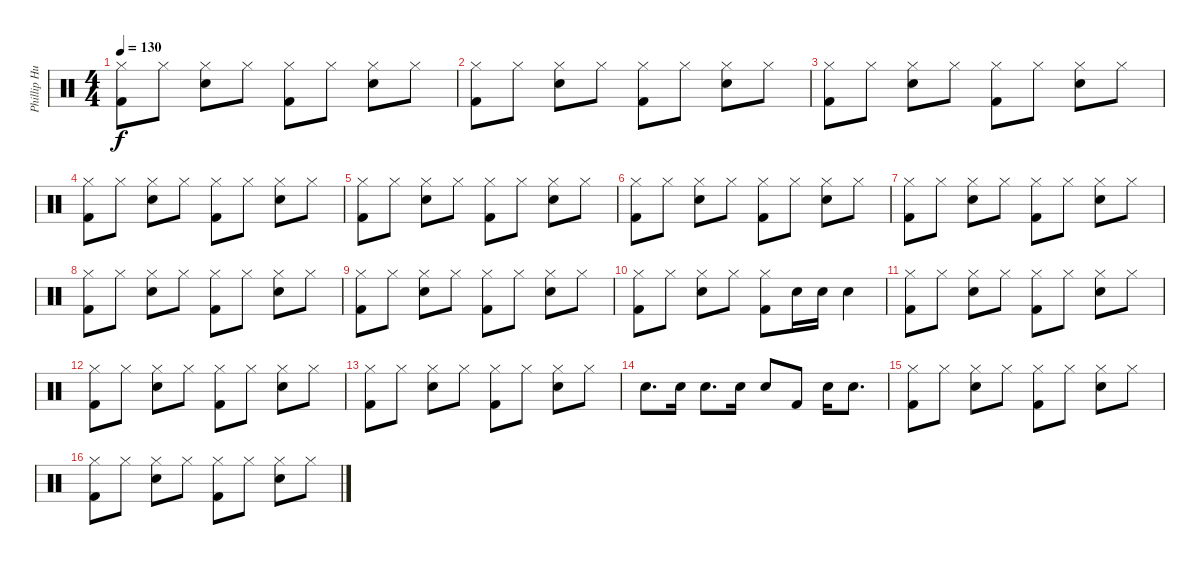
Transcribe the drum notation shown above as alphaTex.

\track ("Phillip Hungh" "Phillip Hu") {instrument percussion}
\staff {score}
\articulation defaults
\ts (4 4)
\tempo 130
\clef neutral
\ks c
("Hi-Hat (closed)" "Kick (hit) 2").8{dy f} "Hi-Hat (closed)".8 ("Hi-Hat (closed)" "Snare (hit) 2").8 "Hi-Hat (closed)".8 ("Hi-Hat (closed)" "Kick (hit) 2").8 "Hi-Hat (closed)".8 ("Hi-Hat (closed)" "Snare (hit) 2").8 "Hi-Hat (closed)".8 |
("Hi-Hat (closed)" "Kick (hit) 2").8 "Hi-Hat (closed)".8 ("Hi-Hat (closed)" "Snare (hit) 2").8 "Hi-Hat (closed)".8 ("Hi-Hat (closed)" "Kick (hit) 2").8 "Hi-Hat (closed)".8 ("Hi-Hat (closed)" "Snare (hit) 2").8 "Hi-Hat (closed)".8 |
("Hi-Hat (closed)" "Kick (hit) 2").8 "Hi-Hat (closed)".8 ("Hi-Hat (closed)" "Snare (hit) 2").8 "Hi-Hat (closed)".8 ("Hi-Hat (closed)" "Kick (hit) 2").8 "Hi-Hat (closed)".8 ("Hi-Hat (closed)" "Snare (hit) 2").8 "Hi-Hat (closed)".8 |
("Hi-Hat (closed)" "Kick (hit) 2").8 "Hi-Hat (closed)".8 ("Hi-Hat (closed)" "Snare (hit) 2").8 "Hi-Hat (closed)".8 ("Hi-Hat (closed)" "Kick (hit) 2").8 "Hi-Hat (closed)".8 ("Hi-Hat (closed)" "Snare (hit) 2").8 "Hi-Hat (closed)".8 |
("Hi-Hat (closed)" "Kick (hit) 2").8 "Hi-Hat (closed)".8 ("Hi-Hat (closed)" "Snare (hit) 2").8 "Hi-Hat (closed)".8 ("Hi-Hat (closed)" "Kick (hit) 2").8 "Hi-Hat (closed)".8 ("Hi-Hat (closed)" "Snare (hit) 2").8 "Hi-Hat (closed)".8 |
("Hi-Hat (closed)" "Kick (hit) 2").8 "Hi-Hat (closed)".8 ("Hi-Hat (closed)" "Snare (hit) 2").8 "Hi-Hat (closed)".8 ("Hi-Hat (closed)" "Kick (hit) 2").8 "Hi-Hat (closed)".8 ("Hi-Hat (closed)" "Snare (hit) 2").8 "Hi-Hat (closed)".8 |
("Hi-Hat (closed)" "Kick (hit) 2").8 "Hi-Hat (closed)".8 ("Hi-Hat (closed)" "Snare (hit) 2").8 "Hi-Hat (closed)".8 ("Hi-Hat (closed)" "Kick (hit) 2").8 "Hi-Hat (closed)".8 ("Hi-Hat (closed)" "Snare (hit) 2").8 "Hi-Hat (closed)".8 |
("Hi-Hat (closed)" "Kick (hit) 2").8 "Hi-Hat (closed)".8 ("Hi-Hat (closed)" "Snare (hit) 2").8 "Hi-Hat (closed)".8 ("Hi-Hat (closed)" "Kick (hit) 2").8 "Hi-Hat (closed)".8 ("Hi-Hat (closed)" "Snare (hit) 2").8 "Hi-Hat (closed)".8 |
("Hi-Hat (closed)" "Kick (hit) 2").8 "Hi-Hat (closed)".8 ("Hi-Hat (closed)" "Snare (hit) 2").8 "Hi-Hat (closed)".8 ("Hi-Hat (closed)" "Kick (hit) 2").8 "Hi-Hat (closed)".8 ("Hi-Hat (closed)" "Snare (hit) 2").8 "Hi-Hat (closed)".8 |
("Hi-Hat (closed)" "Kick (hit) 2").8 "Hi-Hat (closed)".8 ("Hi-Hat (closed)" "Snare (hit) 2").8 "Hi-Hat (closed)".8 ("Hi-Hat (closed)" "Kick (hit) 2").8 "Snare (hit) 2".16 "Snare (hit) 2".16 "Snare (hit) 2".4 |
("Hi-Hat (closed)" "Kick (hit) 2").8 "Hi-Hat (closed)".8 ("Hi-Hat (closed)" "Snare (hit) 2").8 "Hi-Hat (closed)".8 ("Hi-Hat (closed)" "Kick (hit) 2").8 "Hi-Hat (closed)".8 ("Hi-Hat (closed)" "Snare (hit) 2").8 "Hi-Hat (closed)".8 |
("Hi-Hat (closed)" "Kick (hit) 2").8 "Hi-Hat (closed)".8 ("Hi-Hat (closed)" "Snare (hit) 2").8 "Hi-Hat (closed)".8 ("Hi-Hat (closed)" "Kick (hit) 2").8 "Hi-Hat (closed)".8 ("Hi-Hat (closed)" "Snare (hit) 2").8 "Hi-Hat (closed)".8 |
("Hi-Hat (closed)" "Kick (hit) 2").8 "Hi-Hat (closed)".8 ("Hi-Hat (closed)" "Snare (hit) 2").8 "Hi-Hat (closed)".8 ("Hi-Hat (closed)" "Kick (hit) 2").8 "Hi-Hat (closed)".8 ("Hi-Hat (closed)" "Snare (hit) 2").8 "Hi-Hat (closed)".8 |
"Snare (hit) 2".8{d} "Snare (hit) 2".16 "Snare (hit) 2".8{d} "Snare (hit) 2".16 "Snare (hit) 2".8 "Kick (hit) 2".8 "Snare (hit) 2".16 "Snare (hit) 2".8{d} |
("Hi-Hat (closed)" "Kick (hit) 2").8 "Hi-Hat (closed)".8 ("Hi-Hat (closed)" "Snare (hit) 2").8 "Hi-Hat (closed)".8 ("Hi-Hat (closed)" "Kick (hit) 2").8 "Hi-Hat (closed)".8 ("Hi-Hat (closed)" "Snare (hit) 2").8 "Hi-Hat (closed)".8 |
("Hi-Hat (closed)" "Kick (hit) 2").8 "Hi-Hat (closed)".8 ("Hi-Hat (closed)" "Snare (hit) 2").8 "Hi-Hat (closed)".8 ("Hi-Hat (closed)" "Kick (hit) 2").8 "Hi-Hat (closed)".8 ("Hi-Hat (closed)" "Snare (hit) 2").8 "Hi-Hat (closed)".8
